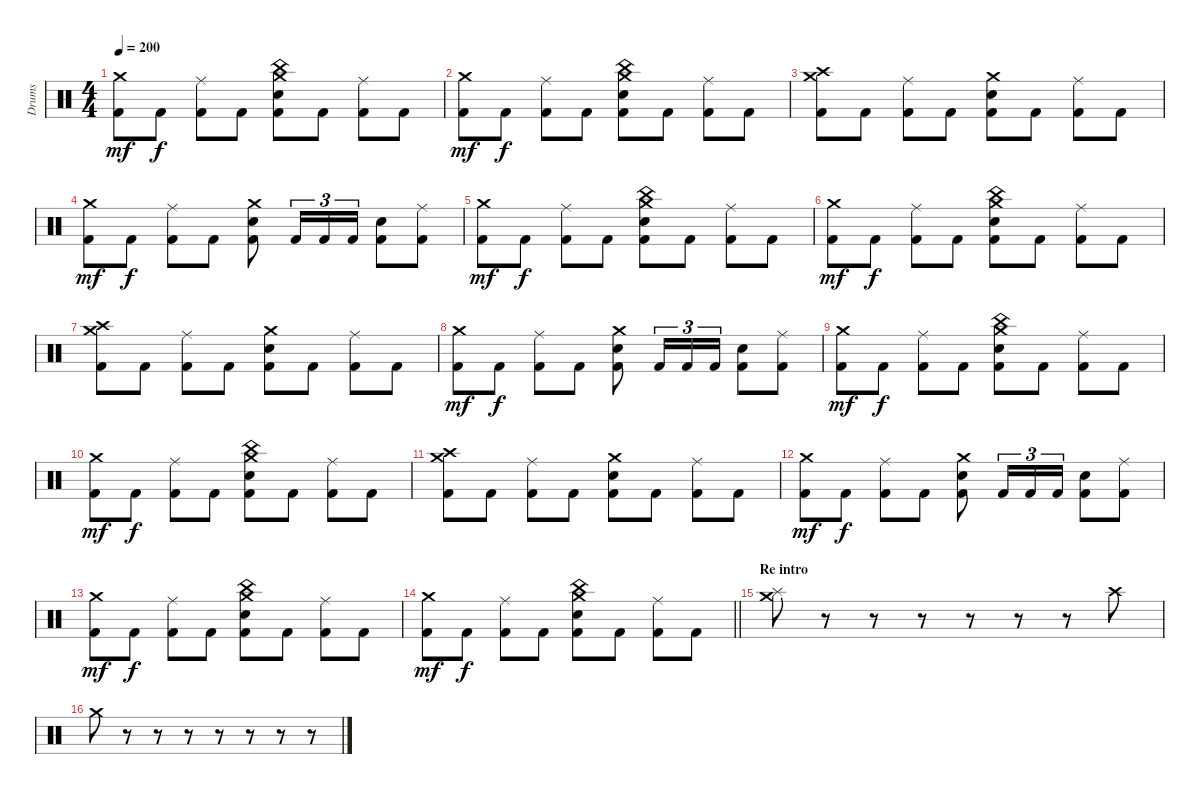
\track ("Drums" "Drums") {instrument percussion}
\staff {score}
\articulation defaults
\ts (4 4)
\tempo 200
\clef neutral
\ks c
("Crash medium (hit)" "Kick (hit) 2").8{dy mf} "Kick (hit) 2".8{dy f} ("Ride (middle)" "Kick (hit) 2").8 "Kick (hit) 2".8 ("China (hit)" "Crash medium (hit)" "Electric Snare (hit)" "Kick (hit) 2").8 "Kick (hit) 2".8 ("Ride (middle)" "Kick (hit) 2").8 "Kick (hit) 2".8 |
("Crash medium (hit)" "Kick (hit) 2").8{dy mf} "Kick (hit) 2".8{dy f} ("Ride (middle)" "Kick (hit) 2").8 "Kick (hit) 2".8 ("China (hit)" "Crash medium (hit)" "Electric Snare (hit)" "Kick (hit) 2").8 "Kick (hit) 2".8 ("Ride (middle)" "Kick (hit) 2").8 "Kick (hit) 2".8 |
("Crash high (hit)" "Crash medium (hit)" "Kick (hit) 2").8 "Kick (hit) 2".8 ("Ride (middle)" "Kick (hit) 2").8 "Kick (hit) 2".8 ("Crash medium (hit)" "Electric Snare (hit)" "Kick (hit) 2").8 "Kick (hit) 2".8 ("Ride (middle)" "Kick (hit) 2").8 "Kick (hit) 2".8 |
("Crash medium (hit)" "Kick (hit) 2").8{dy mf} "Kick (hit) 2".8{dy f} ("Ride (middle)" "Kick (hit) 2").8 "Kick (hit) 2".8 ("Crash medium (hit)" "Electric Snare (hit)" "Kick (hit) 2").8 "Kick (hit) 2".16{tu (3 2)} "Kick (hit) 2".16{tu (3 2)} "Kick (hit) 2".16{tu (3 2)} ("Snare (hit) 2" "Kick (hit) 2").8 ("Ride (middle)" "Kick (hit) 2").8 |
("Crash medium (hit)" "Kick (hit) 2").8{dy mf} "Kick (hit) 2".8{dy f} ("Ride (middle)" "Kick (hit) 2").8 "Kick (hit) 2".8 ("China (hit)" "Crash medium (hit)" "Electric Snare (hit)" "Kick (hit) 2").8 "Kick (hit) 2".8 ("Ride (middle)" "Kick (hit) 2").8 "Kick (hit) 2".8 |
("Crash medium (hit)" "Kick (hit) 2").8{dy mf} "Kick (hit) 2".8{dy f} ("Ride (middle)" "Kick (hit) 2").8 "Kick (hit) 2".8 ("China (hit)" "Crash medium (hit)" "Electric Snare (hit)" "Kick (hit) 2").8 "Kick (hit) 2".8 ("Ride (middle)" "Kick (hit) 2").8 "Kick (hit) 2".8 |
("Crash high (hit)" "Crash medium (hit)" "Kick (hit) 2").8 "Kick (hit) 2".8 ("Ride (middle)" "Kick (hit) 2").8 "Kick (hit) 2".8 ("Crash medium (hit)" "Electric Snare (hit)" "Kick (hit) 2").8 "Kick (hit) 2".8 ("Ride (middle)" "Kick (hit) 2").8 "Kick (hit) 2".8 |
("Crash medium (hit)" "Kick (hit) 2").8{dy mf} "Kick (hit) 2".8{dy f} ("Ride (middle)" "Kick (hit) 2").8 "Kick (hit) 2".8 ("Crash medium (hit)" "Electric Snare (hit)" "Kick (hit) 2").8 "Kick (hit) 2".16{tu (3 2)} "Kick (hit) 2".16{tu (3 2)} "Kick (hit) 2".16{tu (3 2)} ("Snare (hit) 2" "Kick (hit) 2").8 ("Ride (middle)" "Kick (hit) 2").8 |
("Crash medium (hit)" "Kick (hit) 2").8{dy mf} "Kick (hit) 2".8{dy f} ("Ride (middle)" "Kick (hit) 2").8 "Kick (hit) 2".8 ("China (hit)" "Crash medium (hit)" "Electric Snare (hit)" "Kick (hit) 2").8 "Kick (hit) 2".8 ("Ride (middle)" "Kick (hit) 2").8 "Kick (hit) 2".8 |
("Crash medium (hit)" "Kick (hit) 2").8{dy mf} "Kick (hit) 2".8{dy f} ("Ride (middle)" "Kick (hit) 2").8 "Kick (hit) 2".8 ("China (hit)" "Crash medium (hit)" "Electric Snare (hit)" "Kick (hit) 2").8 "Kick (hit) 2".8 ("Ride (middle)" "Kick (hit) 2").8 "Kick (hit) 2".8 |
("Crash high (hit)" "Crash medium (hit)" "Kick (hit) 2").8 "Kick (hit) 2".8 ("Ride (middle)" "Kick (hit) 2").8 "Kick (hit) 2".8 ("Crash medium (hit)" "Electric Snare (hit)" "Kick (hit) 2").8 "Kick (hit) 2".8 ("Ride (middle)" "Kick (hit) 2").8 "Kick (hit) 2".8 |
("Crash medium (hit)" "Kick (hit) 2").8{dy mf} "Kick (hit) 2".8{dy f} ("Ride (middle)" "Kick (hit) 2").8 "Kick (hit) 2".8 ("Crash medium (hit)" "Electric Snare (hit)" "Kick (hit) 2").8 "Kick (hit) 2".16{tu (3 2)} "Kick (hit) 2".16{tu (3 2)} "Kick (hit) 2".16{tu (3 2)} ("Snare (hit) 2" "Kick (hit) 2").8 ("Ride (middle)" "Kick (hit) 2").8 |
("Crash medium (hit)" "Kick (hit) 2").8{dy mf} "Kick (hit) 2".8{dy f} ("Ride (middle)" "Kick (hit) 2").8 "Kick (hit) 2".8 ("China (hit)" "Crash medium (hit)" "Electric Snare (hit)" "Kick (hit) 2").8 "Kick (hit) 2".8 ("Ride (middle)" "Kick (hit) 2").8 "Kick (hit) 2".8 |
\barLineRight lightlight
("Crash medium (hit)" "Kick (hit) 2").8{dy mf} "Kick (hit) 2".8{dy f} ("Ride (middle)" "Kick (hit) 2").8 "Kick (hit) 2".8 ("China (hit)" "Crash medium (hit)" "Electric Snare (hit)" "Kick (hit) 2").8 "Kick (hit) 2".8 ("Ride (middle)" "Kick (hit) 2").8 "Kick (hit) 2".8 |
\section ("" "Re intro")
("Crash medium (hit)" "Splash (hit)").8 r.8 r.8 r.8 r.8 r.8 r.8 "Crash high (hit)".8 |
"Crash medium (hit)".8 r.8 r.8 r.8 r.8 r.8 r.8 r.8
